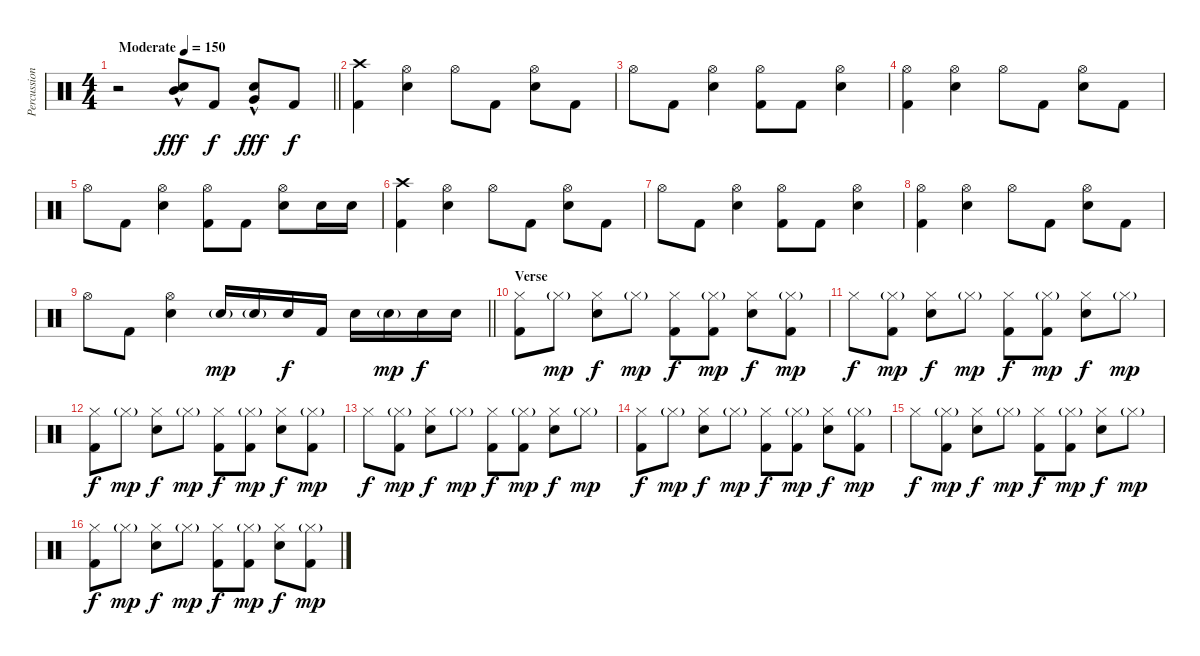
\track ("Percussion" "Percussion") {instrument percussion}
\staff {score}
\articulation defaults
\ts (4 4)
\tempo (150 "Moderate")
\clef neutral
\barLineRight lightlight
\ks c
r.2{dy fff} ("Mid Tom (hit)"{hac} "Electric Snare (hit)").8 "Kick (hit) 2".8{dy f} ("Very Low Tom (hit)"{hac} "Electric Snare (hit)").8{dy fff} "Kick (hit) 2".8{dy f} |
("Crash high (hit)" "Kick (hit) 2").4 ("Hi-Hat (open)" "Electric Snare (hit)").4 "Hi-Hat (open)".8 "Kick (hit) 2".8 ("Hi-Hat (open)" "Electric Snare (hit)").8 "Kick (hit) 2".8 |
"Hi-Hat (open)".8 "Kick (hit) 2".8 ("Hi-Hat (open)" "Electric Snare (hit)").4 ("Hi-Hat (open)" "Kick (hit) 2").8 "Kick (hit) 2".8 ("Hi-Hat (open)" "Electric Snare (hit)").4 |
("Hi-Hat (open)" "Kick (hit) 2").4 ("Hi-Hat (open)" "Electric Snare (hit)").4 "Hi-Hat (open)".8 "Kick (hit) 2".8 ("Hi-Hat (open)" "Electric Snare (hit)").8 "Kick (hit) 2".8 |
"Hi-Hat (open)".8 "Kick (hit) 2".8 ("Hi-Hat (open)" "Electric Snare (hit)").4 ("Hi-Hat (open)" "Kick (hit) 2").8 "Kick (hit) 2".8 ("Hi-Hat (open)" "Electric Snare (hit)").8 "Electric Snare (hit)".16 "Electric Snare (hit)".16 |
("Crash high (hit)" "Kick (hit) 2").4 ("Hi-Hat (open)" "Electric Snare (hit)").4 "Hi-Hat (open)".8 "Kick (hit) 2".8 ("Hi-Hat (open)" "Electric Snare (hit)").8 "Kick (hit) 2".8 |
"Hi-Hat (open)".8 "Kick (hit) 2".8 ("Hi-Hat (open)" "Electric Snare (hit)").4 ("Hi-Hat (open)" "Kick (hit) 2").8 "Kick (hit) 2".8 ("Hi-Hat (open)" "Electric Snare (hit)").4 |
("Hi-Hat (open)" "Kick (hit) 2").4 ("Hi-Hat (open)" "Electric Snare (hit)").4 "Hi-Hat (open)".8 "Kick (hit) 2".8 ("Hi-Hat (open)" "Electric Snare (hit)").8 "Kick (hit) 2".8 |
\barLineRight lightlight "Hi-Hat (open)".8 "Kick (hit) 2".8
("Hi-Hat (open)" "Electric Snare (hit)").4 "Electric Snare (hit)"{g}.16{dy mp} "Electric Snare (hit)"{g}.16 "Electric Snare (hit)".16{dy f} "Kick (hit) 2".16 "Electric Snare (hit)".16 "Electric Snare (hit)"{g}.16{dy mp} "Electric Snare (hit)".16{dy f} "Electric Snare (hit)".16 |
\section ("" "Verse")
("Hi-Hat (closed)" "Kick (hit) 2").8 "Hi-Hat (closed)"{g}.8{dy mp} ("Hi-Hat (closed)" "Electric Snare (hit)").8{dy f} "Hi-Hat (closed)"{g}.8{dy mp} ("Hi-Hat (closed)" "Kick (hit) 2").8{dy f} ("Hi-Hat (closed)"{g} "Kick (hit) 2").8{dy mp} ("Hi-Hat (closed)" "Electric Snare (hit)").8{dy f} ("Hi-Hat (closed)"{g} "Kick (hit) 2").8{dy mp} |
"Hi-Hat (closed)".8{dy f} ("Hi-Hat (closed)"{g} "Kick (hit) 2").8{dy mp} ("Hi-Hat (closed)" "Electric Snare (hit)").8{dy f} "Hi-Hat (closed)"{g}.8{dy mp} ("Hi-Hat (closed)" "Kick (hit) 2").8{dy f} ("Hi-Hat (closed)"{g} "Kick (hit) 2").8{dy mp} ("Hi-Hat (closed)" "Electric Snare (hit)").8{dy f} "Hi-Hat (closed)"{g}.8{dy mp} |
("Hi-Hat (closed)" "Kick (hit) 2").8{dy f} "Hi-Hat (closed)"{g}.8{dy mp} ("Hi-Hat (closed)" "Electric Snare (hit)").8{dy f} "Hi-Hat (closed)"{g}.8{dy mp} ("Hi-Hat (closed)" "Kick (hit) 2").8{dy f} ("Hi-Hat (closed)"{g} "Kick (hit) 2").8{dy mp} ("Hi-Hat (closed)" "Electric Snare (hit)").8{dy f} ("Hi-Hat (closed)"{g} "Kick (hit) 2").8{dy mp} |
"Hi-Hat (closed)".8{dy f} ("Hi-Hat (closed)"{g} "Kick (hit) 2").8{dy mp} ("Hi-Hat (closed)" "Electric Snare (hit)").8{dy f} "Hi-Hat (closed)"{g}.8{dy mp} ("Hi-Hat (closed)" "Kick (hit) 2").8{dy f} ("Hi-Hat (closed)"{g} "Kick (hit) 2").8{dy mp} ("Hi-Hat (closed)" "Electric Snare (hit)").8{dy f} "Hi-Hat (closed)"{g}.8{dy mp} |
("Hi-Hat (closed)" "Kick (hit) 2").8{dy f} "Hi-Hat (closed)"{g}.8{dy mp} ("Hi-Hat (closed)" "Electric Snare (hit)").8{dy f} "Hi-Hat (closed)"{g}.8{dy mp} ("Hi-Hat (closed)" "Kick (hit) 2").8{dy f} ("Hi-Hat (closed)"{g} "Kick (hit) 2").8{dy mp} ("Hi-Hat (closed)" "Electric Snare (hit)").8{dy f} ("Hi-Hat (closed)"{g} "Kick (hit) 2").8{dy mp} |
"Hi-Hat (closed)".8{dy f} ("Hi-Hat (closed)"{g} "Kick (hit) 2").8{dy mp} ("Hi-Hat (closed)" "Electric Snare (hit)").8{dy f} "Hi-Hat (closed)"{g}.8{dy mp} ("Hi-Hat (closed)" "Kick (hit) 2").8{dy f} ("Hi-Hat (closed)"{g} "Kick (hit) 2").8{dy mp} ("Hi-Hat (closed)" "Electric Snare (hit)").8{dy f} "Hi-Hat (closed)"{g}.8{dy mp} |
("Hi-Hat (closed)" "Kick (hit) 2").8{dy f} "Hi-Hat (closed)"{g}.8{dy mp} ("Hi-Hat (closed)" "Electric Snare (hit)").8{dy f} "Hi-Hat (closed)"{g}.8{dy mp} ("Hi-Hat (closed)" "Kick (hit) 2").8{dy f} ("Hi-Hat (closed)"{g} "Kick (hit) 2").8{dy mp} ("Hi-Hat (closed)" "Electric Snare (hit)").8{dy f} ("Hi-Hat (closed)"{g} "Kick (hit) 2").8{dy mp}
